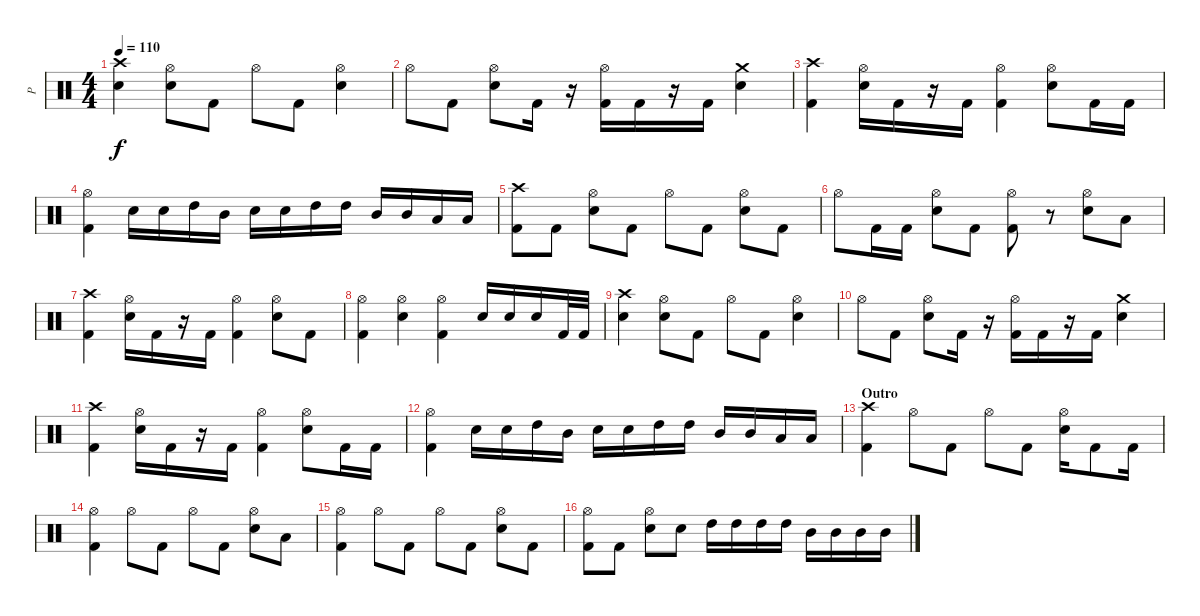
\track ("P" "P") {instrument percussion}
\staff {score}
\articulation defaults
\ts (4 4)
\tempo 110
\clef neutral
\ks c
("Crash high (hit)" "Electric Snare (hit)").4{dy f} ("Hi-Hat (open)" "Electric Snare (hit)").8 "Kick (hit) 2".8 "Hi-Hat (open)".8 "Kick (hit) 2".8 ("Hi-Hat (open)" "Electric Snare (hit)").4 |
"Hi-Hat (open)".8 "Kick (hit) 2".8 ("Hi-Hat (open)" "Electric Snare (hit)").8 "Kick (hit) 2".16 r.16 ("Hi-Hat (open)" "Kick (hit) 2").16 "Kick (hit) 2".16 r.16 "Kick (hit) 2".16 ("Crash medium (hit)" "Electric Snare (hit)").4 |
("Crash high (hit)" "Kick (hit) 2").4 ("Hi-Hat (open)" "Electric Snare (hit)").16 "Kick (hit) 2".16 r.16 "Kick (hit) 2".16 ("Hi-Hat (open)" "Kick (hit) 2").4 ("Hi-Hat (open)" "Electric Snare (hit)").8 "Kick (hit) 2".16 "Kick (hit) 2".16 |
("Hi-Hat (open)" "Kick (hit) 2").4 "Electric Snare (hit)".16 "Electric Snare (hit)".16 "High Tom (hit)".16 "Mid Tom (hit)".16 "Electric Snare (hit)".16 "Electric Snare (hit)".16 "High Tom (hit)".16 "High Tom (hit)".16 "Mid Tom (hit)".16 "Mid Tom (hit)".16 "Low Tom (hit)".16 "Low Tom (hit)".16 |
("Crash high (hit)" "Kick (hit) 2").8 "Kick (hit) 2".8 ("Hi-Hat (open)" "Electric Snare (hit)").8 "Kick (hit) 2".8 "Hi-Hat (open)".8 "Kick (hit) 2".8 ("Hi-Hat (open)" "Electric Snare (hit)").8 "Kick (hit) 2".8 |
"Hi-Hat (open)".8 "Kick (hit) 2".16 "Kick (hit) 2".16 ("Hi-Hat (open)" "Electric Snare (hit)").8 "Kick (hit) 2".8 ("Hi-Hat (open)" "Kick (hit) 2").8 r.8 ("Hi-Hat (open)" "Electric Snare (hit)").8 "Low Tom (hit)".8 |
("Crash high (hit)" "Kick (hit) 2").4 ("Hi-Hat (open)" "Electric Snare (hit)").16 "Kick (hit) 2".16 r.16 "Kick (hit) 2".16 ("Hi-Hat (open)" "Kick (hit) 2").4 ("Hi-Hat (open)" "Electric Snare (hit)").8 "Kick (hit) 2".8 |
("Hi-Hat (open)" "Kick (hit) 2").4 ("Hi-Hat (open)" "Electric Snare (hit)").4 ("Hi-Hat (open)" "Kick (hit) 2").4 "Electric Snare (hit)".16 "Electric Snare (hit)".16 "Electric Snare (hit)".16 "Kick (hit) 2".32 "Kick (hit) 2".32 |
("Crash high (hit)" "Electric Snare (hit)").4 ("Hi-Hat (open)" "Electric Snare (hit)").8 "Kick (hit) 2".8 "Hi-Hat (open)".8 "Kick (hit) 2".8 ("Hi-Hat (open)" "Electric Snare (hit)").4 |
"Hi-Hat (open)".8 "Kick (hit) 2".8 ("Hi-Hat (open)" "Electric Snare (hit)").8 "Kick (hit) 2".16 r.16 ("Hi-Hat (open)" "Kick (hit) 2").16 "Kick (hit) 2".16 r.16 "Kick (hit) 2".16 ("Crash medium (hit)" "Electric Snare (hit)").4 |
("Crash high (hit)" "Kick (hit) 2").4 ("Hi-Hat (open)" "Electric Snare (hit)").16 "Kick (hit) 2".16 r.16 "Kick (hit) 2".16 ("Hi-Hat (open)" "Kick (hit) 2").4 ("Hi-Hat (open)" "Electric Snare (hit)").8 "Kick (hit) 2".16 "Kick (hit) 2".16 |
("Hi-Hat (open)" "Kick (hit) 2").4 "Electric Snare (hit)".16 "Electric Snare (hit)".16 "High Tom (hit)".16 "Mid Tom (hit)".16 "Electric Snare (hit)".16 "Electric Snare (hit)".16 "High Tom (hit)".16 "High Tom (hit)".16 "Mid Tom (hit)".16 "Mid Tom (hit)".16 "Low Tom (hit)".16 "Low Tom (hit)".16 |
\section ("" "Outro")
("Crash high (hit)" "Kick (hit) 2").4 "Hi-Hat (open)".8 "Kick (hit) 2".8 "Hi-Hat (open)".8 "Kick (hit) 2".8 ("Hi-Hat (open)" "Electric Snare (hit)").16 "Kick (hit) 2".8 "Kick (hit) 2".16 |
("Hi-Hat (open)" "Kick (hit) 2").4 "Hi-Hat (open)".8 "Kick (hit) 2".8 "Hi-Hat (open)".8 "Kick (hit) 2".8 ("Hi-Hat (open)" "Electric Snare (hit)").8 "Low Tom (hit)".8 |
("Hi-Hat (open)" "Kick (hit) 2").4 "Hi-Hat (open)".8 "Kick (hit) 2".8 "Hi-Hat (open)".8 "Kick (hit) 2".8 ("Hi-Hat (open)" "Electric Snare (hit)").8 "Kick (hit) 2".8 |
("Hi-Hat (open)" "Kick (hit) 2").8 "Kick (hit) 2".8 ("Hi-Hat (open)" "Electric Snare (hit)").8 "Electric Snare (hit)".8 "High Tom (hit)".16 "High Tom (hit)".16 "High Tom (hit)".16 "High Tom (hit)".16 "Mid Tom (hit)".16 "Mid Tom (hit)".16 "Mid Tom (hit)".16 "Mid Tom (hit)".16
